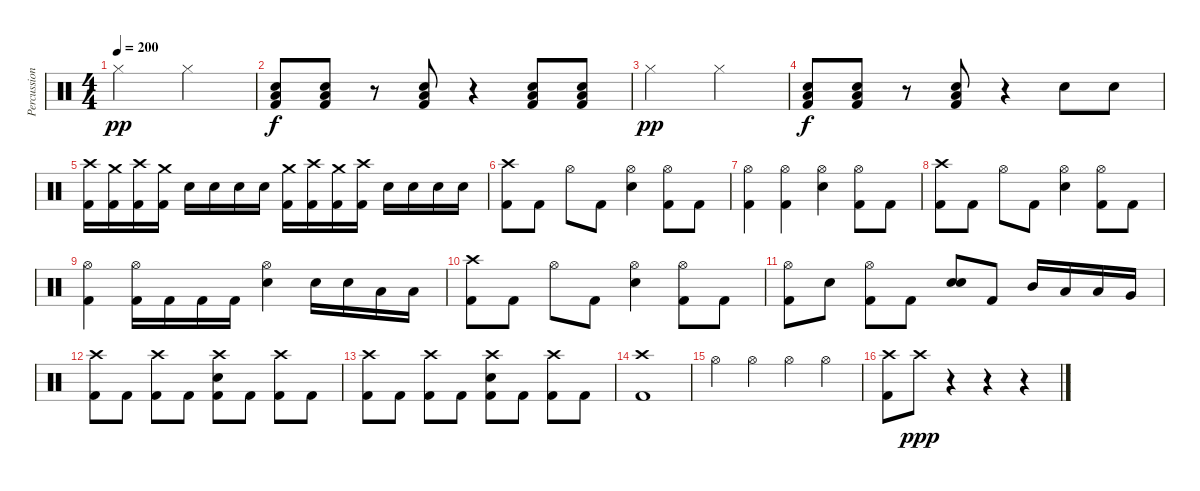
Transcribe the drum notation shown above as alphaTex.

\track ("Percussions" "Percussion") {instrument percussion}
\staff {score}
\articulation defaults
\ts (4 4)
\tempo 200
\clef neutral
\ks c "Hi-Hat (closed)".2{dy pp} "Hi-Hat (closed)".2
|
("Low Floor Tom (hit)" "Snare (hit) 2" "Kick (hit) 2").8{dy f} ("Low Floor Tom (hit)" "Snare (hit) 2" "Kick (hit) 2").8 r.8 ("Low Floor Tom (hit)" "Snare (hit) 2" "Kick (hit) 2").8 r.4 ("Low Floor Tom (hit)" "Snare (hit) 2" "Kick (hit) 2").8 ("Low Floor Tom (hit)" "Snare (hit) 2" "Kick (hit) 2").8 |
"Hi-Hat (closed)".2{dy pp} "Hi-Hat (closed)".2 |
("Low Floor Tom (hit)" "Snare (hit) 2" "Kick (hit) 2").8{dy f} ("Low Floor Tom (hit)" "Snare (hit) 2" "Kick (hit) 2").8 r.8 ("Low Floor Tom (hit)" "Snare (hit) 2" "Kick (hit) 2").8 r.4 "Snare (hit) 2".8 "Snare (hit) 2".8 |
("Crash high (hit)" "Kick (hit) 2").16 ("Crash medium (hit)" "Kick (hit) 2").16 ("Crash high (hit)" "Kick (hit) 2").16 ("Crash medium (hit)" "Kick (hit) 2").16 "Snare (hit) 2".16 "Snare (hit) 2".16 "Snare (hit) 2".16 "Snare (hit) 2".16 ("Crash medium (hit)" "Kick (hit) 2").16 ("Crash high (hit)" "Kick (hit) 2").16 ("Crash medium (hit)" "Kick (hit) 2").16 ("Crash high (hit)" "Kick (hit) 2").16 "Snare (hit) 2".16 "Snare (hit) 2".16 "Snare (hit) 2".16 "Snare (hit) 2".16 |
("Crash high (hit)" "Kick (hit) 2").8 "Kick (hit) 2".8 "Hi-Hat (open)".8 "Kick (hit) 2".8 ("Hi-Hat (open)" "Snare (hit) 2").4 ("Hi-Hat (open)" "Kick (hit) 2").8 "Kick (hit) 2".8 |
("Hi-Hat (open)" "Kick (hit) 2").4 ("Hi-Hat (open)" "Kick (hit) 2").4 ("Hi-Hat (open)" "Snare (hit) 2").4 ("Hi-Hat (open)" "Kick (hit) 2").8 "Kick (hit) 2".8 |
("Crash high (hit)" "Kick (hit) 2").8 "Kick (hit) 2".8 "Hi-Hat (open)".8 "Kick (hit) 2".8 ("Hi-Hat (open)" "Snare (hit) 2").4 ("Hi-Hat (open)" "Kick (hit) 2").8 "Kick (hit) 2".8 |
("Hi-Hat (open)" "Kick (hit) 2").4 ("Hi-Hat (open)" "Kick (hit) 2").16 "Kick (hit) 2".16 "Kick (hit) 2".16 "Kick (hit) 2".16 ("Hi-Hat (open)" "Snare (hit) 2").4 "Snare (hit) 2".16 "Snare (hit) 2".16 "Low Tom (hit)".16 "Low Tom (hit)".16 |
("Crash high (hit)" "Kick (hit) 2").8 "Kick (hit) 2".8 "Hi-Hat (open)".8 "Kick (hit) 2".8 ("Hi-Hat (open)" "Snare (hit) 2").4 ("Hi-Hat (open)" "Kick (hit) 2").8 "Kick (hit) 2".8 |
("Hi-Hat (open)" "Kick (hit) 2").8 "Snare (hit) 2".8 ("Hi-Hat (open)" "Kick (hit) 2").8 "Kick (hit) 2".8 ("Snare (hit) 2" "Snare (hit) 2").8{bd 120} "Kick (hit) 2".8 "Mid Tom (hit)".16 "Low Tom (hit)".16 "Low Tom (hit)".16 "Very Low Tom (hit)".16 |
("Crash high (hit)" "Kick (hit) 2").8 "Kick (hit) 2".8 ("Crash high (hit)" "Kick (hit) 2").8 "Kick (hit) 2".8 ("Crash high (hit)" "Snare (hit) 2" "Kick (hit) 2").8 "Kick (hit) 2".8 ("Crash high (hit)" "Kick (hit) 2").8 "Kick (hit) 2".8 |
("Crash high (hit)" "Kick (hit) 2").8 "Kick (hit) 2".8 ("Crash high (hit)" "Kick (hit) 2").8 "Kick (hit) 2".8 ("Crash high (hit)" "Snare (hit) 2" "Kick (hit) 2").8 "Kick (hit) 2".8 ("Crash high (hit)" "Kick (hit) 2").8 "Kick (hit) 2".8 |
("Crash high (hit)" "Kick (hit) 2").1 |
"Hi-Hat (open)".4 "Hi-Hat (open)".4 "Hi-Hat (open)".4 "Hi-Hat (open)".4 |
("Crash high (hit)" "Kick (hit) 2").8 "Crash high (hit)".8{dy ppp} r.4 r.4 r.4
